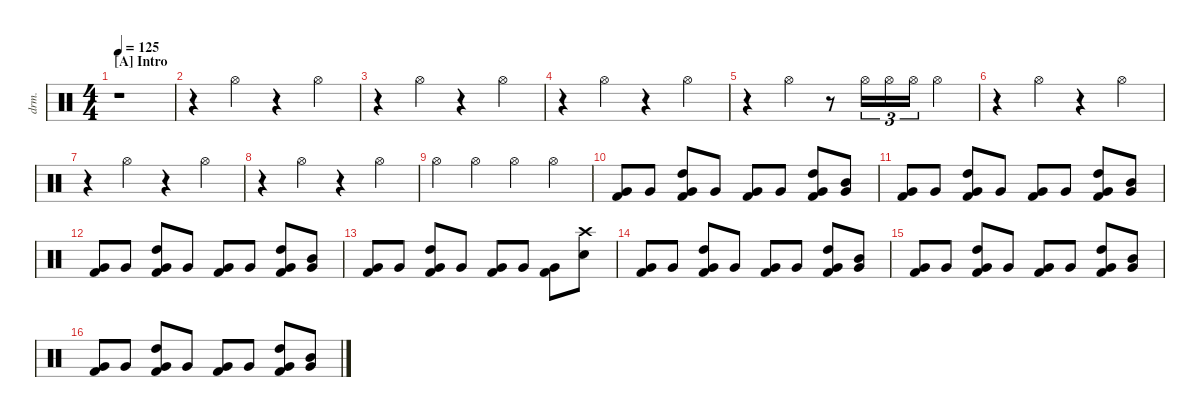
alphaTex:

\defaultSystemsLayout 4
\hideDynamics
\bracketExtendMode nobrackets
\otherSystemsTrackNameOrientation horizontal
\track ("Drums" "drm.") {defaultSystemsLayout 4 multiBarRest instrument percussion}
\staff
\articulation defaults
\ts (4 4)
\section ("A" "Intro")
\tempo 125
\clef neutral
\ks c
r.1{dy mf} |
r.4 "Hi-Hat (open)".4 r.4 "Hi-Hat (open)".4 |
r.4 "Hi-Hat (open)".4 r.4 "Hi-Hat (open)".4 |
r.4 "Hi-Hat (open)".4 r.4 "Hi-Hat (open)".4 |
r.4 "Hi-Hat (open)".4 r.8 "Hi-Hat (open)".16{tu (3 2) dy p} "Hi-Hat (open)".16{tu (3 2)} "Hi-Hat (open)".16{tu (3 2) dy mf} "Hi-Hat (open)".4 |
r.4 "Hi-Hat (open)".4 r.4 "Hi-Hat (open)".4 |
r.4 "Hi-Hat (open)".4 r.4 "Hi-Hat (open)".4 |
r.4 "Hi-Hat (open)".4 r.4 "Hi-Hat (open)".4 |
"Hi-Hat (open)".4 "Hi-Hat (open)".4 "Hi-Hat (open)".4 "Hi-Hat (open)".4 |
("Kick (hit) 2" "Very Low Tom (hit)").8{dy ff} "Very Low Tom (hit)".8 ("Very Low Tom (hit)" "Kick (hit) 2" "High Tom (hit)").8 "Very Low Tom (hit)".8 ("Very Low Tom (hit)" "Kick (hit) 2").8 "Very Low Tom (hit)".8 ("Very Low Tom (hit)" "Kick (hit) 2" "High Tom (hit)").8 ("Very Low Tom (hit)" "Mid Tom (hit)").8 |
("Kick (hit) 2" "Very Low Tom (hit)").8 "Very Low Tom (hit)".8 ("Very Low Tom (hit)" "Kick (hit) 2" "High Tom (hit)").8 "Very Low Tom (hit)".8 ("Very Low Tom (hit)" "Kick (hit) 2").8 "Very Low Tom (hit)".8 ("Very Low Tom (hit)" "Kick (hit) 2" "High Tom (hit)").8 ("Very Low Tom (hit)" "Mid Tom (hit)").8 |
("Kick (hit) 2" "Very Low Tom (hit)").8 "Very Low Tom (hit)".8 ("Very Low Tom (hit)" "Kick (hit) 2" "High Tom (hit)").8 "Very Low Tom (hit)".8 ("Very Low Tom (hit)" "Kick (hit) 2").8 "Very Low Tom (hit)".8 ("Very Low Tom (hit)" "Kick (hit) 2" "High Tom (hit)").8 ("Very Low Tom (hit)" "Mid Tom (hit)").8 |
("Kick (hit) 2" "Very Low Tom (hit)").8 "Very Low Tom (hit)".8 ("Very Low Tom (hit)" "Kick (hit) 2" "High Tom (hit)").8 "Very Low Tom (hit)".8 ("Very Low Tom (hit)" "Kick (hit) 2").8 "Very Low Tom (hit)".8 ("Kick (hit) 2" "Very Low Tom (hit)").8 ("Snare (hit) 2" "Crash high (hit)").8{dy f} |
("Kick (hit) 2" "Very Low Tom (hit)").8{dy ff} "Very Low Tom (hit)".8 ("Very Low Tom (hit)" "Kick (hit) 2" "High Tom (hit)").8 "Very Low Tom (hit)".8 ("Very Low Tom (hit)" "Kick (hit) 2").8 "Very Low Tom (hit)".8 ("Very Low Tom (hit)" "Kick (hit) 2" "High Tom (hit)").8 ("Very Low Tom (hit)" "Mid Tom (hit)").8 |
("Kick (hit) 2" "Very Low Tom (hit)").8 "Very Low Tom (hit)".8 ("Very Low Tom (hit)" "Kick (hit) 2" "High Tom (hit)").8 "Very Low Tom (hit)".8 ("Very Low Tom (hit)" "Kick (hit) 2").8 "Very Low Tom (hit)".8 ("Very Low Tom (hit)" "Kick (hit) 2" "High Tom (hit)").8 ("Very Low Tom (hit)" "Mid Tom (hit)").8 |
("Kick (hit) 2" "Very Low Tom (hit)").8 "Very Low Tom (hit)".8 ("Very Low Tom (hit)" "Kick (hit) 2" "High Tom (hit)").8 "Very Low Tom (hit)".8 ("Very Low Tom (hit)" "Kick (hit) 2").8 "Very Low Tom (hit)".8 ("Very Low Tom (hit)" "Kick (hit) 2" "High Tom (hit)").8 ("Very Low Tom (hit)" "Mid Tom (hit)").8
